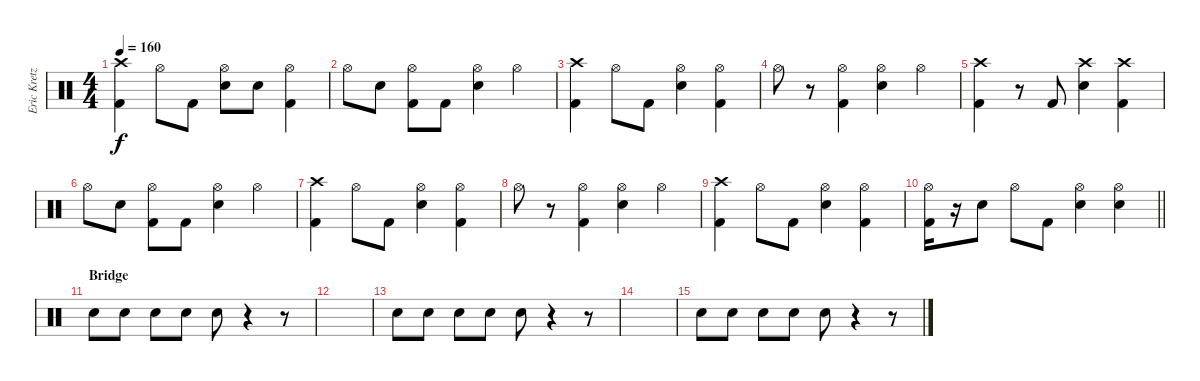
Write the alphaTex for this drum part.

\track ("Eric Kretz (Drums)" "Eric Kretz") {instrument percussion}
\staff {score}
\articulation defaults
\ts (4 4)
\tempo 160
\clef neutral
\ks c
("Crash high (hit)" "Kick (hit) 2").4{dy f} "Hi-Hat (open)".8 "Kick (hit) 2".8 ("Hi-Hat (open)" "Snare (hit) 2").8 "Snare (hit) 2".8 ("Hi-Hat (open)" "Kick (hit) 2").4 |
"Hi-Hat (open)".8 "Snare (hit) 2".8 ("Hi-Hat (open)" "Kick (hit) 2").8 "Kick (hit) 2".8 ("Hi-Hat (open)" "Snare (hit) 2").4 "Hi-Hat (open)".4 |
("Crash high (hit)" "Kick (hit) 2").4 "Hi-Hat (open)".8 "Kick (hit) 2".8 ("Hi-Hat (open)" "Snare (hit) 2").4 ("Hi-Hat (open)" "Kick (hit) 2").4 |
"Hi-Hat (open)".8 r.8 ("Hi-Hat (open)" "Kick (hit) 2").4 ("Hi-Hat (open)" "Snare (hit) 2").4 "Hi-Hat (open)".4 |
("Crash high (hit)" "Kick (hit) 2").4 r.8 "Kick (hit) 2".8 ("Crash high (hit)" "Snare (hit) 2").4 ("Crash high (hit)" "Kick (hit) 2").4 |
"Hi-Hat (open)".8 "Snare (hit) 2".8 ("Hi-Hat (open)" "Kick (hit) 2").8 "Kick (hit) 2".8 ("Hi-Hat (open)" "Snare (hit) 2").4 "Hi-Hat (open)".4 |
("Crash high (hit)" "Kick (hit) 2").4 "Hi-Hat (open)".8 "Kick (hit) 2".8 ("Hi-Hat (open)" "Snare (hit) 2").4 ("Hi-Hat (open)" "Kick (hit) 2").4 |
"Hi-Hat (open)".8 r.8 ("Hi-Hat (open)" "Kick (hit) 2").4 ("Hi-Hat (open)" "Snare (hit) 2").4 "Hi-Hat (open)".4 |
("Crash high (hit)" "Kick (hit) 2").4 "Hi-Hat (open)".8 "Kick (hit) 2".8 ("Hi-Hat (open)" "Snare (hit) 2").4 ("Hi-Hat (open)" "Kick (hit) 2").4 |
\barLineRight lightlight
("Hi-Hat (open)" "Kick (hit) 2").16 r.16 "Snare (hit) 2".8 "Hi-Hat (open)".8 "Kick (hit) 2".8 ("Hi-Hat (open)" "Snare (hit) 2").4 ("Hi-Hat (open)" "Snare (hit) 2").4 |
\section ("" "Bridge")
"Snare (hit) 2".8 "Snare (hit) 2".8 "Snare (hit) 2".8 "Snare (hit) 2".8 "Snare (hit) 2".8 r.4 r.8 |
|
"Snare (hit) 2".8 "Snare (hit) 2".8 "Snare (hit) 2".8 "Snare (hit) 2".8 "Snare (hit) 2".8 r.4 r.8 |
|
"Snare (hit) 2".8 "Snare (hit) 2".8 "Snare (hit) 2".8 "Snare (hit) 2".8 "Snare (hit) 2".8 r.4 r.8
